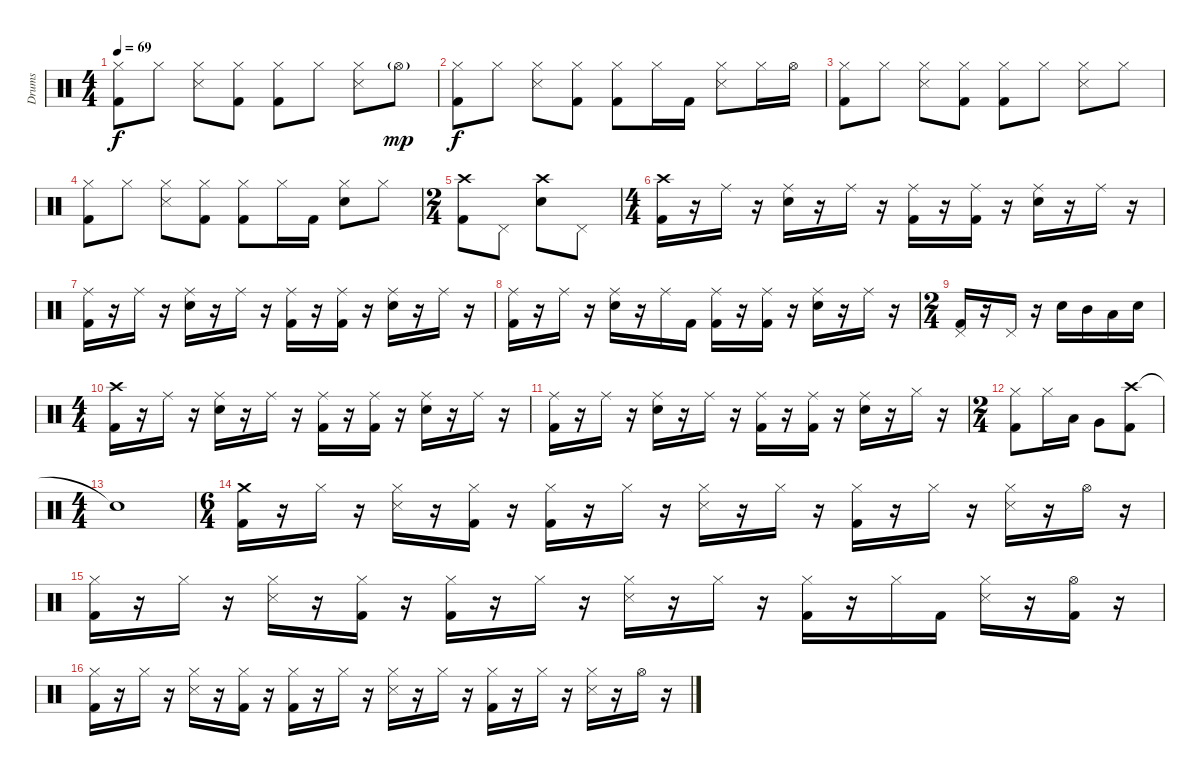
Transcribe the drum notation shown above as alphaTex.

\track ("Drums" "Drums") {instrument percussion}
\staff {score}
\articulation defaults
\ts (4 4)
\tempo 69
\clef neutral
\ks c
("Hi-Hat (closed)" "Kick (hit) 2").8{dy f} "Hi-Hat (closed)".8 ("Hi-Hat (closed)" "Snare (side stick) 3").8 ("Hi-Hat (closed)" "Kick (hit) 2").8 ("Hi-Hat (closed)" "Kick (hit) 2").8 "Hi-Hat (closed)".8 ("Hi-Hat (closed)" "Snare (side stick) 3").8 "Hi-Hat (open)"{g}.8{dy mp} |
("Hi-Hat (closed)" "Kick (hit) 2").8{dy f} "Hi-Hat (closed)".8 ("Hi-Hat (closed)" "Snare (side stick) 3").8 ("Hi-Hat (closed)" "Kick (hit) 2").8 ("Hi-Hat (closed)" "Kick (hit) 2").8 "Hi-Hat (closed)".16 "Kick (hit) 2".16 ("Hi-Hat (closed)" "Snare (side stick) 3").8 "Hi-Hat (closed)".16 "Hi-Hat (open)".16 |
("Hi-Hat (closed)" "Kick (hit) 2").8 "Hi-Hat (closed)".8 ("Hi-Hat (closed)" "Snare (side stick) 3").8 ("Hi-Hat (closed)" "Kick (hit) 2").8 ("Hi-Hat (closed)" "Kick (hit) 2").8 "Hi-Hat (closed)".8 ("Hi-Hat (closed)" "Snare (side stick) 3").8 "Hi-Hat (closed)".8 |
("Hi-Hat (closed)" "Kick (hit) 2").8 "Hi-Hat (closed)".8 ("Hi-Hat (closed)" "Snare (side stick) 3").8 ("Hi-Hat (closed)" "Kick (hit) 2").8 ("Hi-Hat (closed)" "Kick (hit) 2").8 "Hi-Hat (closed)".16 "Kick (hit) 2".16 ("Hi-Hat (closed)" "Snare (hit) 2").8 "Hi-Hat (closed)".8 |
\ts (2 4)
("Crash high (hit)" "Kick (hit) 2").8 "Pedal Hi-Hat (hit)".8 ("Crash high (hit)" "Snare (hit) 2").8 "Pedal Hi-Hat (hit)".8 |
\ts (4 4)
("Crash high (hit)" "Kick (hit) 2").16 r.16 "Ride (middle)".16 r.16 ("Ride (middle)" "Snare (hit) 2").16 r.16 "Ride (middle)".16 r.16 ("Ride (middle)" "Kick (hit) 2").16 r.16 ("Ride (middle)" "Kick (hit) 2").16 r.16 ("Ride (middle)" "Snare (hit) 2").16 r.16 "Ride (middle)".16 r.16 |
("Ride (middle)" "Kick (hit) 2").16 r.16 "Ride (middle)".16 r.16 ("Ride (middle)" "Snare (hit) 2").16 r.16 "Ride (middle)".16 r.16 ("Ride (middle)" "Kick (hit) 2").16 r.16 ("Ride (middle)" "Kick (hit) 2").16 r.16 ("Ride (middle)" "Snare (hit) 2").16 r.16 "Ride (middle)".16 r.16 |
("Ride (middle)" "Kick (hit) 2").16 r.16 "Ride (middle)".16 r.16 ("Ride (middle)" "Snare (hit) 2").16 r.16 "Ride (middle)".16 "Kick (hit) 2".16 ("Ride (middle)" "Kick (hit) 2").16 r.16 ("Ride (middle)" "Kick (hit) 2").16 r.16 ("Ride (middle)" "Snare (hit) 2").16 r.16 "Ride (middle)".16 r.16 |
\ts (2 4)
("Pedal Hi-Hat (hit)" "Kick (hit) 2").16 r.16 "Pedal Hi-Hat (hit)".16 r.16 "Snare (hit) 2".16 "Mid Tom (hit)".16 "Low Tom (hit)".16 "Metronome (bell)".16 |
\ts (4 4)
("Crash high (hit)" "Kick (hit) 2").16 r.16 "Ride (middle)".16 r.16 ("Ride (middle)" "Snare (hit) 2").16 r.16 "Ride (middle)".16 r.16 ("Ride (middle)" "Kick (hit) 2").16 r.16 ("Ride (middle)" "Kick (hit) 2").16 r.16 ("Ride (middle)" "Snare (hit) 2").16 r.16 "Ride (middle)".16 r.16 |
("Ride (middle)" "Kick (hit) 2").16 r.16 "Ride (middle)".16 r.16 ("Ride (middle)" "Snare (hit) 2").16 r.16 "Ride (middle)".16 r.16 ("Ride (middle)" "Kick (hit) 2").16 r.16 ("Ride (middle)" "Kick (hit) 2").16 r.16 ("Ride (middle)" "Snare (hit) 2").16 r.16 "Hi-Hat (closed)".16 r.16 |
\ts (2 4)
("Hi-Hat (closed)" "Kick (hit) 2").8 "Hi-Hat (closed)".16 "Low Tom (hit)".16 "Very Low Tom (hit)".8 ("Crash high (hit)" "Kick (hit) 2").8 |
\ts (4 4)
"Snare (hit)"{t}.1 |
\ts (6 4)
("Crash medium (hit)" "Kick (hit) 2").16 r.16 "Hi-Hat (closed)".16 r.16 ("Hi-Hat (closed)" "Snare (side stick) 3").16 r.16 ("Hi-Hat (closed)" "Kick (hit) 2").16 r.16 ("Hi-Hat (closed)" "Kick (hit) 2").16 r.16 "Hi-Hat (closed)".16 r.16 ("Hi-Hat (closed)" "Snare (side stick) 3").16 r.16 "Hi-Hat (closed)".16 r.16 ("Hi-Hat (closed)" "Kick (hit) 2").16 r.16 "Hi-Hat (closed)".16 r.16 ("Hi-Hat (closed)" "Snare (side stick) 3").16 r.16 "Hi-Hat (open)".16 r.16 |
("Hi-Hat (closed)" "Kick (hit) 2").16 r.16 "Hi-Hat (closed)".16 r.16 ("Hi-Hat (closed)" "Snare (side stick) 3").16 r.16 ("Hi-Hat (closed)" "Kick (hit) 2").16 r.16 ("Hi-Hat (closed)" "Kick (hit) 2").16 r.16 "Hi-Hat (closed)".16 r.16 ("Hi-Hat (closed)" "Snare (side stick) 3").16 r.16 "Hi-Hat (closed)".16 r.16 ("Hi-Hat (closed)" "Kick (hit) 2").16 r.16 "Hi-Hat (closed)".16 "Kick (hit) 2".16 ("Hi-Hat (closed)" "Snare (side stick) 3").16 r.16 ("Hi-Hat (open)" "Kick (hit) 2").16 r.16 |
("Hi-Hat (closed)" "Kick (hit) 2").16 r.16 "Hi-Hat (closed)".16 r.16 ("Hi-Hat (closed)" "Snare (side stick) 3").16 r.16 ("Hi-Hat (closed)" "Kick (hit) 2").16 r.16 ("Hi-Hat (closed)" "Kick (hit) 2").16 r.16 "Hi-Hat (closed)".16 r.16 ("Hi-Hat (closed)" "Snare (side stick) 3").16 r.16 "Hi-Hat (closed)".16 r.16 ("Hi-Hat (closed)" "Kick (hit) 2").16 r.16 "Hi-Hat (closed)".16 r.16 ("Hi-Hat (closed)" "Snare (side stick) 3").16 r.16 "Hi-Hat (open)".16 r.16
